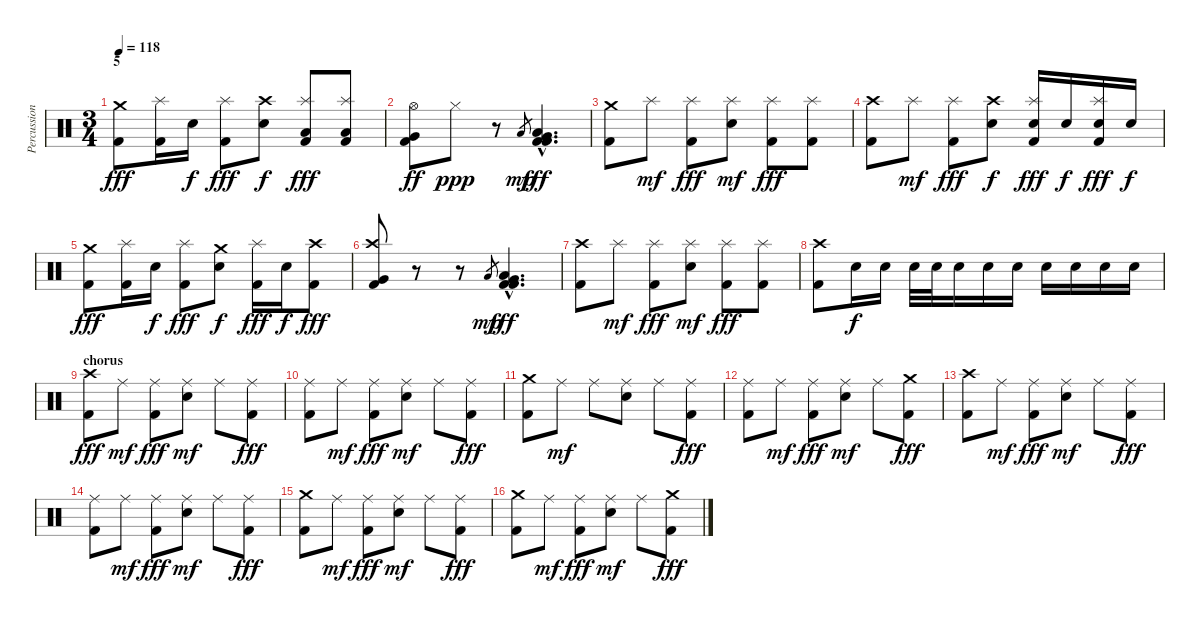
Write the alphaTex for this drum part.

\track ("Percussion" "Percussion") {instrument percussion}
\staff {score}
\articulation defaults
\ts (3 4)
\section ("" "5")
\tempo 118
\clef neutral
\ks c
("Crash medium (hit)" "Kick (hit) 2").8{dy fff} ("Splash (hit)" "Kick (hit) 2").16 "Electric Snare (hit)".16{dy f} ("Splash (hit)" "Kick (hit) 2").8{dy fff} ("Crash high (hit)" "Electric Snare (hit)").8{dy f} ("Splash (hit)" "Low Tom (hit)" "Kick (hit) 2").8{dy fff} ("Splash (hit)" "Low Tom (hit)" "Kick (hit) 2").8 |
("Hi-Hat (open)" "Very Low Tom (hit)" "Kick (hit) 2").8{dy ff} "Hi-Hat (closed)".8{dy ppp} r.8 "Low Tom (hit)".8{gr dy mp} ("Kick (hit) 2"{hac} "Very Low Tom (hit)"{hac} "Low Tom (hit)"{hac} "Kick (hit) 2"{hac}).4{d dy fff} |
("Crash medium (hit)" "Kick (hit) 2").8 "Splash (hit)".8{dy mf} ("Splash (hit)" "Kick (hit) 2").8{dy fff} ("Splash (hit)" "Electric Snare (hit)").8{dy mf} ("Splash (hit)" "Kick (hit) 2").8{dy fff} ("Splash (hit)" "Kick (hit) 2").8 |
("Crash high (hit)" "Kick (hit) 2").8 "Splash (hit)".8{dy mf} ("Splash (hit)" "Kick (hit) 2").8{dy fff} ("Crash high (hit)" "Electric Snare (hit)").8{dy f} ("Splash (hit)" "Electric Snare (hit)" "Kick (hit) 2").16{dy fff} "Electric Snare (hit)".16{dy f} ("Splash (hit)" "Electric Snare (hit)" "Kick (hit) 2").16{dy fff} "Electric Snare (hit)".16{dy f} |
("Crash medium (hit)" "Kick (hit) 2").8{dy fff} ("Splash (hit)" "Kick (hit) 2").16 "Electric Snare (hit)".16{dy f} ("Splash (hit)" "Kick (hit) 2").8{dy fff} ("Crash medium (hit)" "Electric Snare (hit)").8{dy f} ("Splash (hit)" "Kick (hit) 2").16{dy fff} "Electric Snare (hit)".16{dy f} ("Crash high (hit)" "Kick (hit) 2").8{dy fff} |
("Crash high (hit)" "Very Low Tom (hit)" "Kick (hit) 2").8 r.8 r.8 "Low Tom (hit)".8{gr dy mp} ("Kick (hit) 2"{hac} "Very Low Tom (hit)"{hac} "Low Tom (hit)"{hac} "Kick (hit) 2"{hac}).4{d dy fff} |
("Crash high (hit)" "Kick (hit) 2").8 "Splash (hit)".8{dy mf} ("Splash (hit)" "Kick (hit) 2").8{dy fff} ("Splash (hit)" "Electric Snare (hit)").8{dy mf} ("Splash (hit)" "Kick (hit) 2").8{dy fff} ("Splash (hit)" "Kick (hit) 2").8 |
("Crash high (hit)" "Kick (hit) 2").8 "Electric Snare (hit)".16{dy f} "Electric Snare (hit)".16 "Electric Snare (hit)".32 "Electric Snare (hit)".32 "Electric Snare (hit)".16 "Electric Snare (hit)".16 "Electric Snare (hit)".16 "Electric Snare (hit)".16 "Electric Snare (hit)".16 "Electric Snare (hit)".16 "Electric Snare (hit)".16 |
\section ("" "chorus")
("Crash high (hit)" "Kick (hit) 2").8{dy fff} "Ride (middle)".8{dy mf} ("Ride (middle)" "Kick (hit) 2").8{dy fff} ("Ride (middle)" "Electric Snare (hit)").8{dy mf} "Ride (middle)".8 ("Ride (middle)" "Kick (hit) 2").8{dy fff} |
("Ride (middle)" "Kick (hit) 2").8 "Ride (middle)".8{dy mf} ("Ride (middle)" "Kick (hit) 2").8{dy fff} ("Ride (middle)" "Electric Snare (hit)").8{dy mf} "Ride (middle)".8 ("Ride (middle)" "Kick (hit) 2").8{dy fff} |
("Crash medium (hit)" "Kick (hit) 2").8 "Ride (middle)".8{dy mf} "Ride (middle)".8 ("Ride (middle)" "Electric Snare (hit)").8 "Ride (middle)".8 ("Ride (middle)" "Kick (hit) 2").8{dy fff} |
("Ride (middle)" "Kick (hit) 2").8 "Ride (middle)".8{dy mf} ("Ride (middle)" "Kick (hit) 2").8{dy fff} ("Ride (middle)" "Electric Snare (hit)").8{dy mf} "Ride (middle)".8 ("Crash medium (hit)" "Kick (hit) 2").8{dy fff} |
("Crash high (hit)" "Kick (hit) 2").8 "Ride (middle)".8{dy mf} ("Ride (middle)" "Kick (hit) 2").8{dy fff} ("Ride (middle)" "Electric Snare (hit)").8{dy mf} "Ride (middle)".8 ("Ride (middle)" "Kick (hit) 2").8{dy fff} |
("Ride (middle)" "Kick (hit) 2").8 "Ride (middle)".8{dy mf} ("Ride (middle)" "Kick (hit) 2").8{dy fff} ("Ride (middle)" "Electric Snare (hit)").8{dy mf} "Ride (middle)".8 ("Ride (middle)" "Kick (hit) 2").8{dy fff} |
("Crash medium (hit)" "Kick (hit) 2").8 "Ride (middle)".8{dy mf} ("Ride (middle)" "Kick (hit) 2").8{dy fff} ("Ride (middle)" "Electric Snare (hit)").8{dy mf} "Ride (middle)".8 ("Ride (middle)" "Kick (hit) 2").8{dy fff} |
("Crash medium (hit)" "Kick (hit) 2").8 "Ride (middle)".8{dy mf} ("Ride (middle)" "Kick (hit) 2").8{dy fff} ("Ride (middle)" "Electric Snare (hit)").8{dy mf} "Ride (middle)".8 ("Crash medium (hit)" "Kick (hit) 2").8{dy fff}
